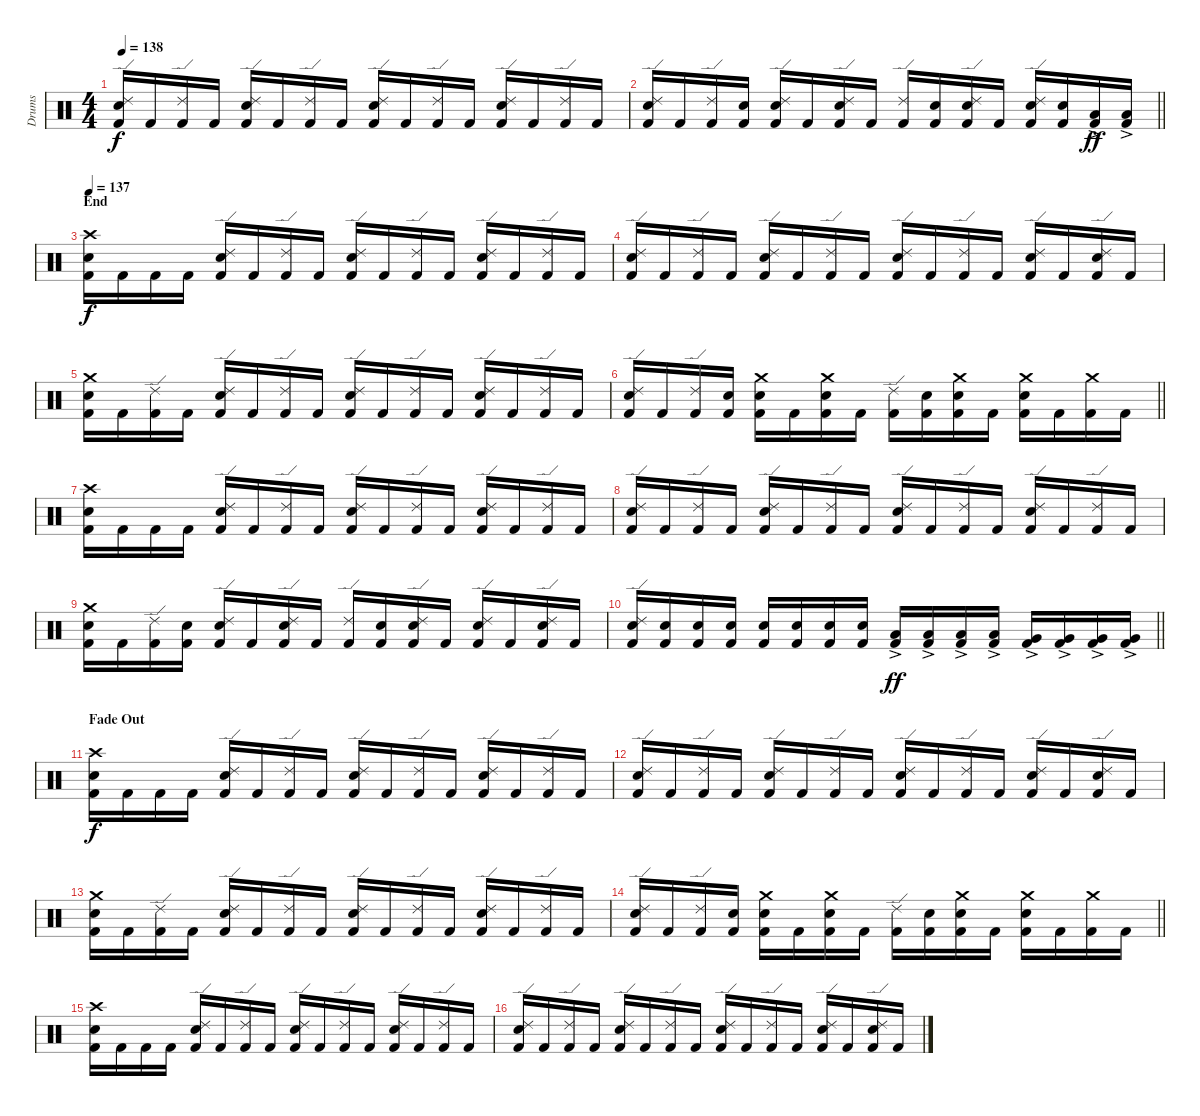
\track ("Drums" "Drums") {instrument percussion}
\staff {score}
\articulation defaults
\ts (4 4)
\tempo 138
\clef neutral
\ks c
("Kick (hit) 2" "Snare (hit) 2" "Ride (edge) 2").16{dy f} "Kick (hit) 2".16 ("Kick (hit) 2" "Ride (edge) 2").16 "Kick (hit) 2".16 ("Kick (hit) 2" "Snare (hit) 2" "Ride (edge) 2").16 "Kick (hit) 2".16 ("Kick (hit) 2" "Ride (edge) 2").16 "Kick (hit) 2".16 ("Kick (hit) 2" "Snare (hit) 2" "Ride (edge) 2").16 "Kick (hit) 2".16 ("Kick (hit) 2" "Ride (edge) 2").16 "Kick (hit) 2".16 ("Kick (hit) 2" "Snare (hit) 2" "Ride (edge) 2").16 "Kick (hit) 2".16 ("Kick (hit) 2" "Ride (edge) 2").16 "Kick (hit) 2".16 |
\barLineRight lightlight
("Kick (hit) 2" "Snare (hit) 2" "Ride (edge) 2").16 "Kick (hit) 2".16 ("Kick (hit) 2" "Ride (edge) 2").16 ("Kick (hit) 2" "Snare (hit) 2").16 ("Kick (hit) 2" "Snare (hit) 2" "Ride (edge) 2").16 "Kick (hit) 2".16 ("Kick (hit) 2" "Snare (hit) 2" "Ride (edge) 2").16 "Kick (hit) 2".16 ("Kick (hit) 2" "Ride (edge) 2").16 ("Kick (hit) 2" "Snare (hit) 2").16 ("Kick (hit) 2" "Snare (hit) 2" "Ride (edge) 2").16 "Kick (hit) 2".16 ("Kick (hit) 2" "Snare (hit) 2" "Ride (edge) 2").16 ("Kick (hit) 2" "Snare (hit) 2").16 ("Kick (hit) 2" "Low Tom (hit)"{ac}).16{dy ff} ("Kick (hit) 2" "Low Tom (hit)"{ac}).16 |
\section ("" "End")
\tempo 137
("Kick (hit) 2" "Snare (hit) 2" "Crash high (hit)").16{dy f} "Kick (hit) 2".16 "Kick (hit) 2".16 "Kick (hit) 2".16 ("Kick (hit) 2" "Snare (hit) 2" "Ride (edge) 2").16 "Kick (hit) 2".16 ("Kick (hit) 2" "Ride (edge) 2").16 "Kick (hit) 2".16 ("Kick (hit) 2" "Snare (hit) 2" "Ride (edge) 2").16 "Kick (hit) 2".16 ("Kick (hit) 2" "Ride (edge) 2").16 "Kick (hit) 2".16 ("Kick (hit) 2" "Snare (hit) 2" "Ride (edge) 2").16 "Kick (hit) 2".16 ("Kick (hit) 2" "Ride (edge) 2").16 "Kick (hit) 2".16 |
("Kick (hit) 2" "Snare (hit) 2" "Ride (edge) 2").16 "Kick (hit) 2".16 ("Kick (hit) 2" "Ride (edge) 2").16 "Kick (hit) 2".16 ("Kick (hit) 2" "Snare (hit) 2" "Ride (edge) 2").16 "Kick (hit) 2".16 ("Kick (hit) 2" "Ride (edge) 2").16 "Kick (hit) 2".16 ("Kick (hit) 2" "Snare (hit) 2" "Ride (edge) 2").16 "Kick (hit) 2".16 ("Kick (hit) 2" "Ride (edge) 2").16 "Kick (hit) 2".16 ("Kick (hit) 2" "Snare (hit) 2" "Ride (edge) 2").16 "Kick (hit) 2".16 ("Kick (hit) 2" "Snare (hit) 2" "Ride (edge) 2").16 "Kick (hit) 2".16 |
("Kick (hit) 2" "Snare (hit) 2" "Crash medium (hit)").16 "Kick (hit) 2".16 ("Kick (hit) 2" "Ride (edge) 2").16 "Kick (hit) 2".16 ("Kick (hit) 2" "Snare (hit) 2" "Ride (edge) 2").16 "Kick (hit) 2".16 ("Kick (hit) 2" "Ride (edge) 2").16 "Kick (hit) 2".16 ("Kick (hit) 2" "Snare (hit) 2" "Ride (edge) 2").16 "Kick (hit) 2".16 ("Kick (hit) 2" "Ride (edge) 2").16 "Kick (hit) 2".16 ("Kick (hit) 2" "Snare (hit) 2" "Ride (edge) 2").16 "Kick (hit) 2".16 ("Kick (hit) 2" "Ride (edge) 2").16 "Kick (hit) 2".16 |
\barLineRight lightlight
("Kick (hit) 2" "Snare (hit) 2" "Ride (edge) 2").16 "Kick (hit) 2".16 ("Kick (hit) 2" "Ride (edge) 2").16 ("Kick (hit) 2" "Snare (hit) 2").16 ("Kick (hit) 2" "Snare (hit) 2" "Crash medium (hit)").16 "Kick (hit) 2".16 ("Kick (hit) 2" "Snare (hit) 2" "Crash medium (hit)").16 "Kick (hit) 2".16 ("Kick (hit) 2" "Ride (edge) 2").16 ("Kick (hit) 2" "Snare (hit) 2").16 ("Kick (hit) 2" "Snare (hit) 2" "Crash medium (hit)").16 "Kick (hit) 2".16 ("Kick (hit) 2" "Snare (hit) 2" "Crash medium (hit)").16 "Kick (hit) 2".16 ("Kick (hit) 2" "Crash medium (hit)").16 "Kick (hit) 2".16 |
\section ("" "")
("Kick (hit) 2" "Snare (hit) 2" "Crash high (hit)").16 "Kick (hit) 2".16 "Kick (hit) 2".16 "Kick (hit) 2".16 ("Kick (hit) 2" "Snare (hit) 2" "Ride (edge) 2").16 "Kick (hit) 2".16 ("Kick (hit) 2" "Ride (edge) 2").16 "Kick (hit) 2".16 ("Kick (hit) 2" "Snare (hit) 2" "Ride (edge) 2").16 "Kick (hit) 2".16 ("Kick (hit) 2" "Ride (edge) 2").16 "Kick (hit) 2".16 ("Kick (hit) 2" "Snare (hit) 2" "Ride (edge) 2").16 "Kick (hit) 2".16 ("Kick (hit) 2" "Ride (edge) 2").16 "Kick (hit) 2".16 |
("Kick (hit) 2" "Snare (hit) 2" "Ride (edge) 2").16 "Kick (hit) 2".16 ("Kick (hit) 2" "Ride (edge) 2").16 "Kick (hit) 2".16 ("Kick (hit) 2" "Snare (hit) 2" "Ride (edge) 2").16 "Kick (hit) 2".16 ("Kick (hit) 2" "Ride (edge) 2").16 "Kick (hit) 2".16 ("Kick (hit) 2" "Snare (hit) 2" "Ride (edge) 2").16 "Kick (hit) 2".16 ("Kick (hit) 2" "Ride (edge) 2").16 "Kick (hit) 2".16 ("Kick (hit) 2" "Snare (hit) 2" "Ride (edge) 2").16 "Kick (hit) 2".16 ("Kick (hit) 2" "Ride (edge) 2").16 "Kick (hit) 2".16 |
("Kick (hit) 2" "Snare (hit) 2" "Crash medium (hit)").16 "Kick (hit) 2".16 ("Kick (hit) 2" "Ride (edge) 2").16 ("Kick (hit) 2" "Snare (hit) 2").16 ("Kick (hit) 2" "Snare (hit) 2" "Ride (edge) 2").16 "Kick (hit) 2".16 ("Kick (hit) 2" "Snare (hit) 2" "Ride (edge) 2").16 "Kick (hit) 2".16 ("Kick (hit) 2" "Ride (edge) 2").16 ("Kick (hit) 2" "Snare (hit) 2").16 ("Kick (hit) 2" "Snare (hit) 2" "Ride (edge) 2").16 "Kick (hit) 2".16 ("Kick (hit) 2" "Snare (hit) 2" "Ride (edge) 2").16 "Kick (hit) 2".16 ("Kick (hit) 2" "Snare (hit) 2" "Ride (edge) 2").16 "Kick (hit) 2".16 |
\barLineRight lightlight
("Kick (hit) 2" "Snare (hit) 2" "Ride (edge) 2").16 ("Kick (hit) 2" "Snare (hit) 2").16 ("Kick (hit) 2" "Snare (hit) 2").16 ("Kick (hit) 2" "Snare (hit) 2").16 ("Kick (hit) 2" "Snare (hit) 2").16 ("Kick (hit) 2" "Snare (hit) 2").16 ("Kick (hit) 2" "Snare (hit) 2").16 ("Kick (hit) 2" "Snare (hit) 2").16 ("Kick (hit) 2" "Low Tom (hit)"{ac}).16{dy ff} ("Kick (hit) 2" "Low Tom (hit)"{ac}).16 ("Kick (hit) 2" "Low Tom (hit)"{ac}).16 ("Kick (hit) 2" "Low Tom (hit)"{ac}).16 ("Kick (hit) 2" "Very Low Tom (hit)"{ac}).16 ("Kick (hit) 2" "Very Low Tom (hit)"{ac}).16 ("Kick (hit) 2" "Very Low Tom (hit)"{ac}).16 ("Kick (hit) 2" "Very Low Tom (hit)"{ac}).16 |
\section ("" "Fade Out")
("Kick (hit) 2" "Snare (hit) 2" "Crash high (hit)").16{dy f volume 6} "Kick (hit) 2".16 "Kick (hit) 2".16 "Kick (hit) 2".16 ("Kick (hit) 2" "Snare (hit) 2" "Ride (edge) 2").16 "Kick (hit) 2".16 ("Kick (hit) 2" "Ride (edge) 2").16 "Kick (hit) 2".16 ("Kick (hit) 2" "Snare (hit) 2" "Ride (edge) 2").16 "Kick (hit) 2".16 ("Kick (hit) 2" "Ride (edge) 2").16 "Kick (hit) 2".16 ("Kick (hit) 2" "Snare (hit) 2" "Ride (edge) 2").16 "Kick (hit) 2".16 ("Kick (hit) 2" "Ride (edge) 2").16 "Kick (hit) 2".16 |
("Kick (hit) 2" "Snare (hit) 2" "Ride (edge) 2").16 "Kick (hit) 2".16 ("Kick (hit) 2" "Ride (edge) 2").16 "Kick (hit) 2".16 ("Kick (hit) 2" "Snare (hit) 2" "Ride (edge) 2").16 "Kick (hit) 2".16 ("Kick (hit) 2" "Ride (edge) 2").16 "Kick (hit) 2".16 ("Kick (hit) 2" "Snare (hit) 2" "Ride (edge) 2").16 "Kick (hit) 2".16 ("Kick (hit) 2" "Ride (edge) 2").16 "Kick (hit) 2".16 ("Kick (hit) 2" "Snare (hit) 2" "Ride (edge) 2").16 "Kick (hit) 2".16 ("Kick (hit) 2" "Snare (hit) 2" "Ride (edge) 2").16 "Kick (hit) 2".16 |
("Kick (hit) 2" "Snare (hit) 2" "Crash medium (hit)").16 "Kick (hit) 2".16 ("Kick (hit) 2" "Ride (edge) 2").16 "Kick (hit) 2".16 ("Kick (hit) 2" "Snare (hit) 2" "Ride (edge) 2").16 "Kick (hit) 2".16 ("Kick (hit) 2" "Ride (edge) 2").16 "Kick (hit) 2".16 ("Kick (hit) 2" "Snare (hit) 2" "Ride (edge) 2").16 "Kick (hit) 2".16 ("Kick (hit) 2" "Ride (edge) 2").16 "Kick (hit) 2".16 ("Kick (hit) 2" "Snare (hit) 2" "Ride (edge) 2").16 "Kick (hit) 2".16 ("Kick (hit) 2" "Ride (edge) 2").16 "Kick (hit) 2".16 |
\barLineRight lightlight
("Kick (hit) 2" "Snare (hit) 2" "Ride (edge) 2").16 "Kick (hit) 2".16 ("Kick (hit) 2" "Ride (edge) 2").16 ("Kick (hit) 2" "Snare (hit) 2").16 ("Kick (hit) 2" "Snare (hit) 2" "Crash medium (hit)").16 "Kick (hit) 2".16 ("Kick (hit) 2" "Snare (hit) 2" "Crash medium (hit)").16 "Kick (hit) 2".16 ("Kick (hit) 2" "Ride (edge) 2").16 ("Kick (hit) 2" "Snare (hit) 2").16 ("Kick (hit) 2" "Snare (hit) 2" "Crash medium (hit)").16 "Kick (hit) 2".16 ("Kick (hit) 2" "Snare (hit) 2" "Crash medium (hit)").16 "Kick (hit) 2".16 ("Kick (hit) 2" "Crash medium (hit)").16 "Kick (hit) 2".16 |
\section ("" "")
("Kick (hit) 2" "Snare (hit) 2" "Crash high (hit)").16{volume 0} "Kick (hit) 2".16 "Kick (hit) 2".16 "Kick (hit) 2".16 ("Kick (hit) 2" "Snare (hit) 2" "Ride (edge) 2").16 "Kick (hit) 2".16 ("Kick (hit) 2" "Ride (edge) 2").16 "Kick (hit) 2".16 ("Kick (hit) 2" "Snare (hit) 2" "Ride (edge) 2").16 "Kick (hit) 2".16 ("Kick (hit) 2" "Ride (edge) 2").16 "Kick (hit) 2".16 ("Kick (hit) 2" "Snare (hit) 2" "Ride (edge) 2").16 "Kick (hit) 2".16 ("Kick (hit) 2" "Ride (edge) 2").16 "Kick (hit) 2".16 |
("Kick (hit) 2" "Snare (hit) 2" "Ride (edge) 2").16 "Kick (hit) 2".16 ("Kick (hit) 2" "Ride (edge) 2").16 "Kick (hit) 2".16 ("Kick (hit) 2" "Snare (hit) 2" "Ride (edge) 2").16 "Kick (hit) 2".16 ("Kick (hit) 2" "Ride (edge) 2").16 "Kick (hit) 2".16 ("Kick (hit) 2" "Snare (hit) 2" "Ride (edge) 2").16 "Kick (hit) 2".16 ("Kick (hit) 2" "Ride (edge) 2").16 "Kick (hit) 2".16 ("Kick (hit) 2" "Snare (hit) 2" "Ride (edge) 2").16 "Kick (hit) 2".16 ("Kick (hit) 2" "Snare (hit) 2" "Ride (edge) 2").16 "Kick (hit) 2".16
